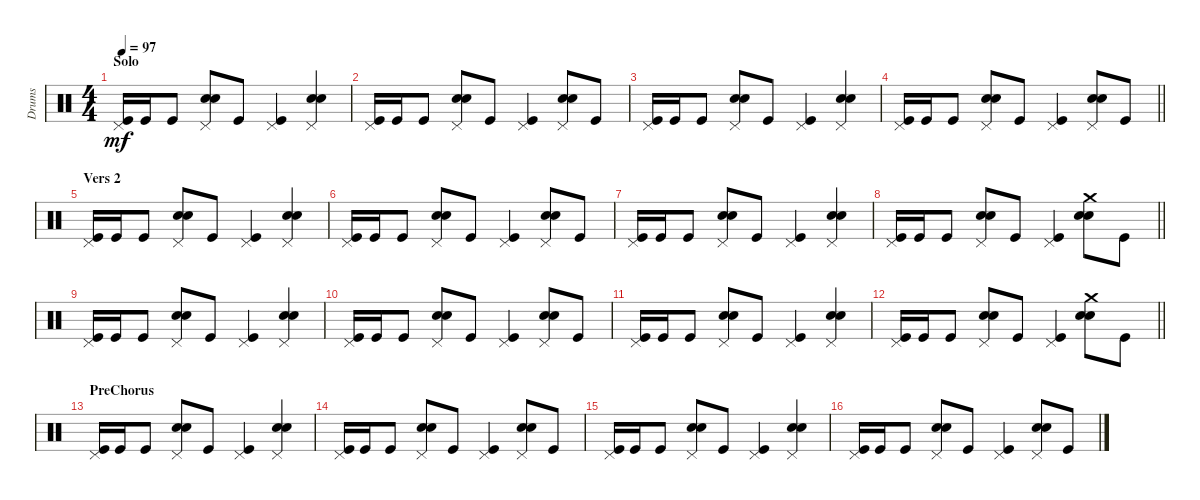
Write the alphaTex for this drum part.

\track ("Drums" "Drums") {instrument percussion}
\staff {score}
\articulation defaults
\ts (4 4)
\section ("" "Solo")
\tempo 97
\clef neutral
\ks c
("Pedal Hi-Hat (hit)" "Kick (hit)").16{dy mf} "Kick (hit)".16 "Kick (hit)".8 ("Pedal Hi-Hat (hit)" "Electric Snare (hit)" "Snare (hit) 2").8 "Kick (hit)".8 ("Pedal Hi-Hat (hit)" "Kick (hit)").4 ("Pedal Hi-Hat (hit)" "Electric Snare (hit)" "Snare (hit) 2").4 |
("Pedal Hi-Hat (hit)" "Kick (hit)").16 "Kick (hit)".16 "Kick (hit)".8 ("Pedal Hi-Hat (hit)" "Electric Snare (hit)" "Snare (hit) 2").8 "Kick (hit)".8 ("Pedal Hi-Hat (hit)" "Kick (hit)").4 ("Pedal Hi-Hat (hit)" "Electric Snare (hit)" "Snare (hit) 2").8 "Kick (hit)".8 |
("Pedal Hi-Hat (hit)" "Kick (hit)").16 "Kick (hit)".16 "Kick (hit)".8 ("Pedal Hi-Hat (hit)" "Electric Snare (hit)" "Snare (hit) 2").8 "Kick (hit)".8 ("Pedal Hi-Hat (hit)" "Kick (hit)").4 ("Pedal Hi-Hat (hit)" "Electric Snare (hit)" "Snare (hit) 2").4 |
\barLineRight lightlight
("Pedal Hi-Hat (hit)" "Kick (hit)").16 "Kick (hit)".16 "Kick (hit)".8 ("Pedal Hi-Hat (hit)" "Electric Snare (hit)" "Snare (hit) 2").8 "Kick (hit)".8 ("Pedal Hi-Hat (hit)" "Kick (hit)").4 ("Pedal Hi-Hat (hit)" "Electric Snare (hit)" "Snare (hit) 2").8 "Kick (hit)".8 |
\section ("" "Vers 2")
("Pedal Hi-Hat (hit)" "Kick (hit)").16 "Kick (hit)".16 "Kick (hit)".8 ("Pedal Hi-Hat (hit)" "Electric Snare (hit)" "Snare (hit) 2").8 "Kick (hit)".8 ("Pedal Hi-Hat (hit)" "Kick (hit)").4 ("Pedal Hi-Hat (hit)" "Electric Snare (hit)" "Snare (hit) 2").4 |
("Pedal Hi-Hat (hit)" "Kick (hit)").16 "Kick (hit)".16 "Kick (hit)".8 ("Pedal Hi-Hat (hit)" "Electric Snare (hit)" "Snare (hit) 2").8 "Kick (hit)".8 ("Pedal Hi-Hat (hit)" "Kick (hit)").4 ("Pedal Hi-Hat (hit)" "Electric Snare (hit)" "Snare (hit) 2").8 "Kick (hit)".8 |
("Pedal Hi-Hat (hit)" "Kick (hit)").16 "Kick (hit)".16 "Kick (hit)".8 ("Pedal Hi-Hat (hit)" "Electric Snare (hit)" "Snare (hit) 2").8 "Kick (hit)".8 ("Pedal Hi-Hat (hit)" "Kick (hit)").4 ("Pedal Hi-Hat (hit)" "Electric Snare (hit)" "Snare (hit) 2").4 |
\barLineRight lightlight
("Pedal Hi-Hat (hit)" "Kick (hit)").16 "Kick (hit)".16 "Kick (hit)".8 ("Pedal Hi-Hat (hit)" "Electric Snare (hit)" "Snare (hit) 2").8 "Kick (hit)".8 ("Pedal Hi-Hat (hit)" "Kick (hit)").4 ("Crash medium (hit)" "Electric Snare (hit)" "Snare (hit) 2").8 "Kick (hit)".8 |
("Pedal Hi-Hat (hit)" "Kick (hit)").16 "Kick (hit)".16 "Kick (hit)".8 ("Pedal Hi-Hat (hit)" "Electric Snare (hit)" "Snare (hit) 2").8 "Kick (hit)".8 ("Pedal Hi-Hat (hit)" "Kick (hit)").4 ("Pedal Hi-Hat (hit)" "Electric Snare (hit)" "Snare (hit) 2").4 |
("Pedal Hi-Hat (hit)" "Kick (hit)").16 "Kick (hit)".16 "Kick (hit)".8 ("Pedal Hi-Hat (hit)" "Electric Snare (hit)" "Snare (hit) 2").8 "Kick (hit)".8 ("Pedal Hi-Hat (hit)" "Kick (hit)").4 ("Pedal Hi-Hat (hit)" "Electric Snare (hit)" "Snare (hit) 2").8 "Kick (hit)".8 |
("Pedal Hi-Hat (hit)" "Kick (hit)").16 "Kick (hit)".16 "Kick (hit)".8 ("Pedal Hi-Hat (hit)" "Electric Snare (hit)" "Snare (hit) 2").8 "Kick (hit)".8 ("Pedal Hi-Hat (hit)" "Kick (hit)").4 ("Pedal Hi-Hat (hit)" "Electric Snare (hit)" "Snare (hit) 2").4 |
\barLineRight lightlight
("Pedal Hi-Hat (hit)" "Kick (hit)").16 "Kick (hit)".16 "Kick (hit)".8 ("Pedal Hi-Hat (hit)" "Electric Snare (hit)" "Snare (hit) 2").8 "Kick (hit)".8 ("Pedal Hi-Hat (hit)" "Kick (hit)").4 ("Crash medium (hit)" "Electric Snare (hit)" "Snare (hit) 2").8 "Kick (hit)".8 |
\section ("" "PreChorus")
("Pedal Hi-Hat (hit)" "Kick (hit)").16 "Kick (hit)".16 "Kick (hit)".8 ("Pedal Hi-Hat (hit)" "Electric Snare (hit)" "Snare (hit) 2").8 "Kick (hit)".8 ("Pedal Hi-Hat (hit)" "Kick (hit)").4 ("Pedal Hi-Hat (hit)" "Electric Snare (hit)" "Snare (hit) 2").4 |
("Pedal Hi-Hat (hit)" "Kick (hit)").16 "Kick (hit)".16 "Kick (hit)".8 ("Pedal Hi-Hat (hit)" "Electric Snare (hit)" "Snare (hit) 2").8 "Kick (hit)".8 ("Pedal Hi-Hat (hit)" "Kick (hit)").4 ("Pedal Hi-Hat (hit)" "Electric Snare (hit)" "Snare (hit) 2").8 "Kick (hit)".8 |
("Pedal Hi-Hat (hit)" "Kick (hit)").16 "Kick (hit)".16 "Kick (hit)".8 ("Pedal Hi-Hat (hit)" "Electric Snare (hit)" "Snare (hit) 2").8 "Kick (hit)".8 ("Pedal Hi-Hat (hit)" "Kick (hit)").4 ("Pedal Hi-Hat (hit)" "Electric Snare (hit)" "Snare (hit) 2").4 |
("Pedal Hi-Hat (hit)" "Kick (hit)").16 "Kick (hit)".16 "Kick (hit)".8 ("Pedal Hi-Hat (hit)" "Electric Snare (hit)" "Snare (hit) 2").8 "Kick (hit)".8 ("Pedal Hi-Hat (hit)" "Kick (hit)").4 ("Pedal Hi-Hat (hit)" "Electric Snare (hit)" "Snare (hit) 2").8 "Kick (hit)".8
